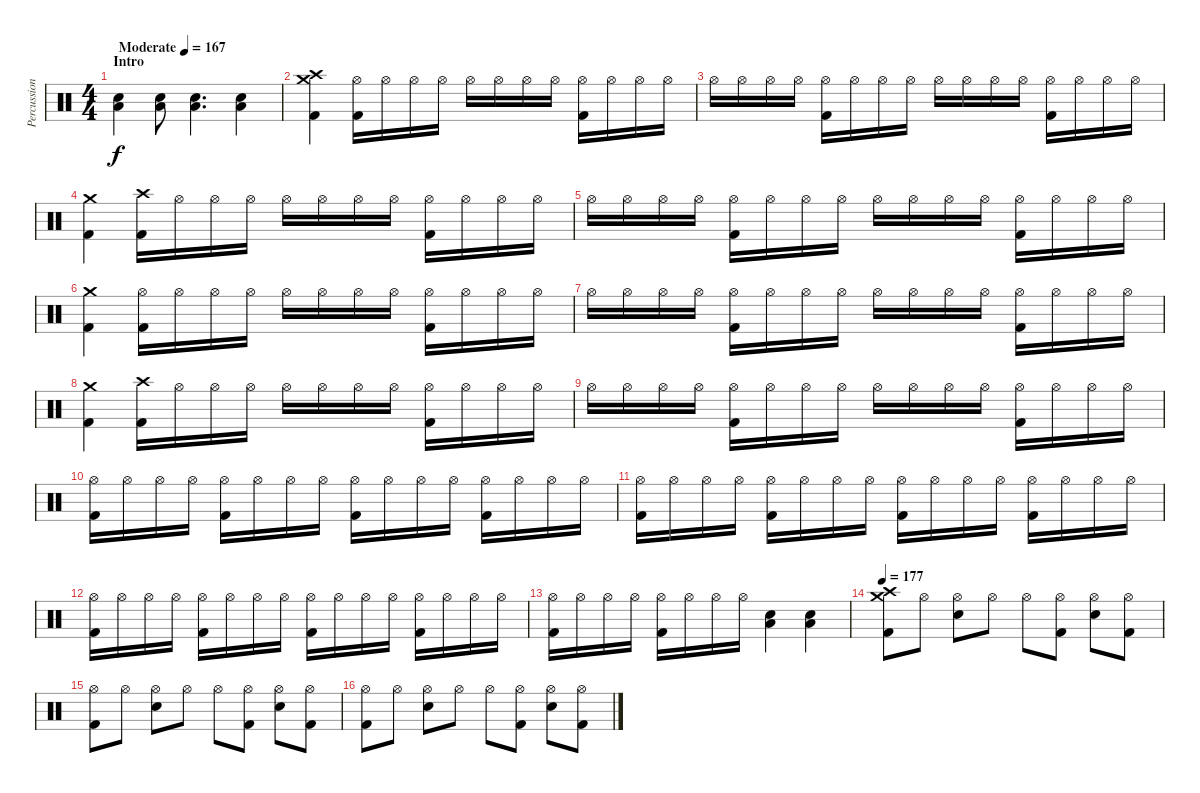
\track ("Percussion" "Percussion") {instrument percussion}
\staff {score}
\articulation defaults
\ts (4 4)
\section ("" "Intro")
\tempo (167 "Moderate")
\clef neutral
\ks c
("Snare (hit) 2" "Low Floor Tom (hit)").4{dy f} ("Snare (hit) 2" "Low Floor Tom (hit)").8 ("Snare (hit) 2" "Low Floor Tom (hit)").4{d} ("Snare (hit) 2" "Low Floor Tom (hit)").4 |
("Crash medium (hit)" "Crash high (hit)" "Kick (hit) 2").4 ("Hi-Hat (open)" "Kick (hit) 2").16 "Hi-Hat (open)".16 "Hi-Hat (open)".16 "Hi-Hat (open)".16 "Hi-Hat (open)".16 "Hi-Hat (open)".16 "Hi-Hat (open)".16 "Hi-Hat (open)".16 ("Hi-Hat (open)" "Kick (hit) 2").16 "Hi-Hat (open)".16 "Hi-Hat (open)".16 "Hi-Hat (open)".16 |
"Hi-Hat (open)".16 "Hi-Hat (open)".16 "Hi-Hat (open)".16 "Hi-Hat (open)".16 ("Hi-Hat (open)" "Kick (hit) 2").16 "Hi-Hat (open)".16 "Hi-Hat (open)".16 "Hi-Hat (open)".16 "Hi-Hat (open)".16 "Hi-Hat (open)".16 "Hi-Hat (open)".16 "Hi-Hat (open)".16 ("Hi-Hat (open)" "Kick (hit) 2").16 "Hi-Hat (open)".16 "Hi-Hat (open)".16 "Hi-Hat (open)".16 |
("Crash medium (hit)" "Kick (hit) 2").4 ("Crash high (hit)" "Kick (hit) 2").16 "Hi-Hat (open)".16 "Hi-Hat (open)".16 "Hi-Hat (open)".16 "Hi-Hat (open)".16 "Hi-Hat (open)".16 "Hi-Hat (open)".16 "Hi-Hat (open)".16 ("Hi-Hat (open)" "Kick (hit) 2").16 "Hi-Hat (open)".16 "Hi-Hat (open)".16 "Hi-Hat (open)".16 |
"Hi-Hat (open)".16 "Hi-Hat (open)".16 "Hi-Hat (open)".16 "Hi-Hat (open)".16 ("Hi-Hat (open)" "Kick (hit) 2").16 "Hi-Hat (open)".16 "Hi-Hat (open)".16 "Hi-Hat (open)".16 "Hi-Hat (open)".16 "Hi-Hat (open)".16 "Hi-Hat (open)".16 "Hi-Hat (open)".16 ("Hi-Hat (open)" "Kick (hit) 2").16 "Hi-Hat (open)".16 "Hi-Hat (open)".16 "Hi-Hat (open)".16 |
("Crash medium (hit)" "Kick (hit) 2").4 ("Hi-Hat (open)" "Kick (hit) 2").16 "Hi-Hat (open)".16 "Hi-Hat (open)".16 "Hi-Hat (open)".16 "Hi-Hat (open)".16 "Hi-Hat (open)".16 "Hi-Hat (open)".16 "Hi-Hat (open)".16 ("Hi-Hat (open)" "Kick (hit) 2").16 "Hi-Hat (open)".16 "Hi-Hat (open)".16 "Hi-Hat (open)".16 |
"Hi-Hat (open)".16 "Hi-Hat (open)".16 "Hi-Hat (open)".16 "Hi-Hat (open)".16 ("Hi-Hat (open)" "Kick (hit) 2").16 "Hi-Hat (open)".16 "Hi-Hat (open)".16 "Hi-Hat (open)".16 "Hi-Hat (open)".16 "Hi-Hat (open)".16 "Hi-Hat (open)".16 "Hi-Hat (open)".16 ("Hi-Hat (open)" "Kick (hit) 2").16 "Hi-Hat (open)".16 "Hi-Hat (open)".16 "Hi-Hat (open)".16 |
("Crash medium (hit)" "Kick (hit) 2").4 ("Crash high (hit)" "Kick (hit) 2").16 "Hi-Hat (open)".16 "Hi-Hat (open)".16 "Hi-Hat (open)".16 "Hi-Hat (open)".16 "Hi-Hat (open)".16 "Hi-Hat (open)".16 "Hi-Hat (open)".16 ("Hi-Hat (open)" "Kick (hit) 2").16 "Hi-Hat (open)".16 "Hi-Hat (open)".16 "Hi-Hat (open)".16 |
"Hi-Hat (open)".16 "Hi-Hat (open)".16 "Hi-Hat (open)".16 "Hi-Hat (open)".16 ("Hi-Hat (open)" "Kick (hit) 2").16 "Hi-Hat (open)".16 "Hi-Hat (open)".16 "Hi-Hat (open)".16 "Hi-Hat (open)".16 "Hi-Hat (open)".16 "Hi-Hat (open)".16 "Hi-Hat (open)".16 ("Hi-Hat (open)" "Kick (hit) 2").16 "Hi-Hat (open)".16 "Hi-Hat (open)".16 "Hi-Hat (open)".16 |
("Hi-Hat (open)" "Kick (hit) 2").16 "Hi-Hat (open)".16 "Hi-Hat (open)".16 "Hi-Hat (open)".16 ("Hi-Hat (open)" "Kick (hit) 2").16 "Hi-Hat (open)".16 "Hi-Hat (open)".16 "Hi-Hat (open)".16 ("Hi-Hat (open)" "Kick (hit) 2").16 "Hi-Hat (open)".16 "Hi-Hat (open)".16 "Hi-Hat (open)".16 ("Hi-Hat (open)" "Kick (hit) 2").16 "Hi-Hat (open)".16 "Hi-Hat (open)".16 "Hi-Hat (open)".16 |
("Hi-Hat (open)" "Kick (hit) 2").16 "Hi-Hat (open)".16 "Hi-Hat (open)".16 "Hi-Hat (open)".16 ("Hi-Hat (open)" "Kick (hit) 2").16 "Hi-Hat (open)".16 "Hi-Hat (open)".16 "Hi-Hat (open)".16 ("Hi-Hat (open)" "Kick (hit) 2").16 "Hi-Hat (open)".16 "Hi-Hat (open)".16 "Hi-Hat (open)".16 ("Hi-Hat (open)" "Kick (hit) 2").16 "Hi-Hat (open)".16 "Hi-Hat (open)".16 "Hi-Hat (open)".16 |
("Hi-Hat (open)" "Kick (hit) 2").16 "Hi-Hat (open)".16 "Hi-Hat (open)".16 "Hi-Hat (open)".16 ("Hi-Hat (open)" "Kick (hit) 2").16 "Hi-Hat (open)".16 "Hi-Hat (open)".16 "Hi-Hat (open)".16 ("Hi-Hat (open)" "Kick (hit) 2").16 "Hi-Hat (open)".16 "Hi-Hat (open)".16 "Hi-Hat (open)".16 ("Hi-Hat (open)" "Kick (hit) 2").16 "Hi-Hat (open)".16 "Hi-Hat (open)".16 "Hi-Hat (open)".16 |
("Hi-Hat (open)" "Kick (hit) 2").16 "Hi-Hat (open)".16 "Hi-Hat (open)".16 "Hi-Hat (open)".16 ("Hi-Hat (open)" "Kick (hit) 2").16 "Hi-Hat (open)".16 "Hi-Hat (open)".16 "Hi-Hat (open)".16 ("Snare (hit) 2" "Low Floor Tom (hit)").4 ("Snare (hit) 2" "Low Floor Tom (hit)").4 |
\tempo 177
("Crash medium (hit)" "Crash high (hit)" "Kick (hit) 2").8 "Hi-Hat (open)".8 ("Hi-Hat (open)" "Snare (hit) 2").8 "Hi-Hat (open)".8 "Hi-Hat (open)".8 ("Hi-Hat (open)" "Kick (hit) 2").8 ("Hi-Hat (open)" "Snare (hit) 2").8 ("Hi-Hat (open)" "Kick (hit) 2").8 |
("Hi-Hat (open)" "Kick (hit) 2").8 "Hi-Hat (open)".8 ("Hi-Hat (open)" "Snare (hit) 2").8 "Hi-Hat (open)".8 "Hi-Hat (open)".8 ("Hi-Hat (open)" "Kick (hit) 2").8 ("Hi-Hat (open)" "Snare (hit) 2").8 ("Hi-Hat (open)" "Kick (hit) 2").8 |
("Hi-Hat (open)" "Kick (hit) 2").8 "Hi-Hat (open)".8 ("Hi-Hat (open)" "Snare (hit) 2").8 "Hi-Hat (open)".8 "Hi-Hat (open)".8 ("Hi-Hat (open)" "Kick (hit) 2").8 ("Hi-Hat (open)" "Snare (hit) 2").8 ("Hi-Hat (open)" "Kick (hit) 2").8
